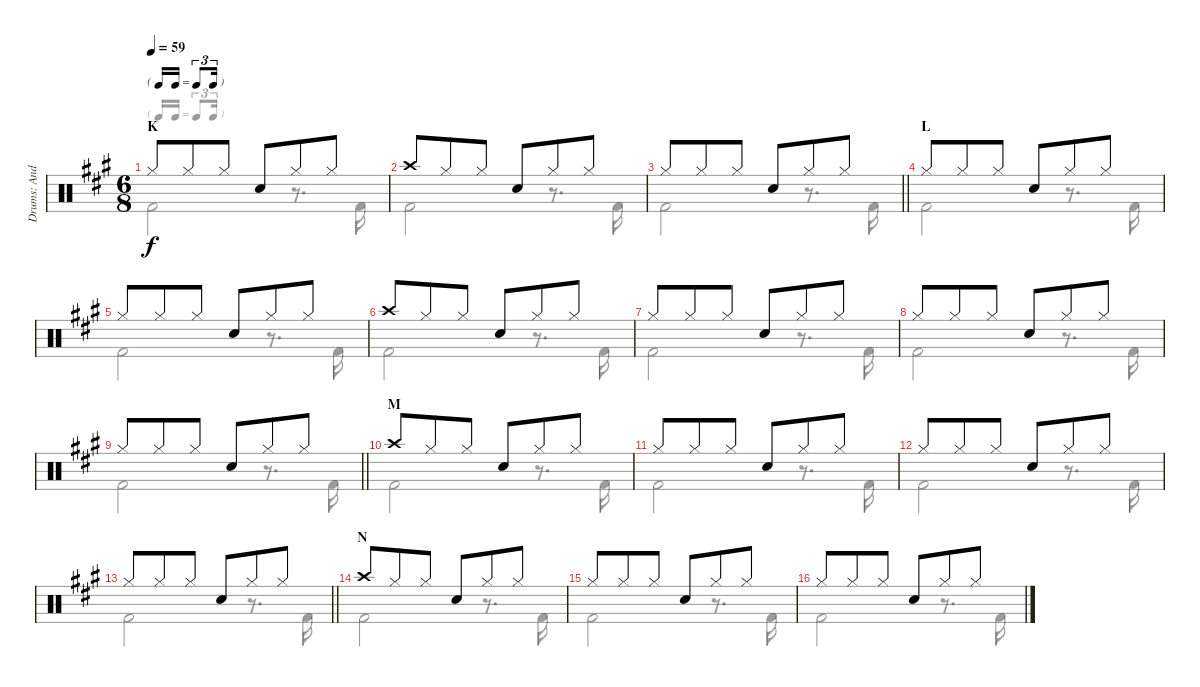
\track ("Drums: Andy Newmark" "Drums: And") {instrument percussion}
\staff {score}
\articulation defaults
\voice
\ts (6 8)
\tf triplet16th
\section ("" "K")
\tempo 59
\clef neutral
\ks a "Hi-Hat (closed)".8{dy f} "Hi-Hat (closed)".8 "Hi-Hat (closed)".8 "Snare (hit) 2".8 "Hi-Hat (closed)".8 "Hi-Hat (closed)".8
|
"Crash high (hit)".8 "Hi-Hat (closed)".8 "Hi-Hat (closed)".8 "Snare (hit) 2".8 "Hi-Hat (closed)".8 "Hi-Hat (closed)".8 |
\barLineRight lightlight "Hi-Hat (closed)".8 "Hi-Hat (closed)".8 "Hi-Hat (closed)".8 "Snare (hit) 2".8 "Hi-Hat (closed)".8 "Hi-Hat (closed)".8
|
\section ("" "L")
"Hi-Hat (closed)".8 "Hi-Hat (closed)".8 "Hi-Hat (closed)".8 "Snare (hit) 2".8 "Hi-Hat (closed)".8 "Hi-Hat (closed)".8 |
"Hi-Hat (closed)".8 "Hi-Hat (closed)".8 "Hi-Hat (closed)".8 "Snare (hit) 2".8 "Hi-Hat (closed)".8 "Hi-Hat (closed)".8 |
"Crash high (hit)".8 "Hi-Hat (closed)".8 "Hi-Hat (closed)".8 "Snare (hit) 2".8 "Hi-Hat (closed)".8 "Hi-Hat (closed)".8 |
"Hi-Hat (closed)".8 "Hi-Hat (closed)".8 "Hi-Hat (closed)".8 "Snare (hit) 2".8 "Hi-Hat (closed)".8 "Hi-Hat (closed)".8 |
"Hi-Hat (closed)".8 "Hi-Hat (closed)".8 "Hi-Hat (closed)".8 "Snare (hit) 2".8 "Hi-Hat (closed)".8 "Hi-Hat (closed)".8 |
\barLineRight lightlight "Hi-Hat (closed)".8 "Hi-Hat (closed)".8 "Hi-Hat (closed)".8 "Snare (hit) 2".8 "Hi-Hat (closed)".8 "Hi-Hat (closed)".8
|
\section ("" "M")
"Crash high (hit)".8 "Hi-Hat (closed)".8 "Hi-Hat (closed)".8 "Snare (hit) 2".8 "Hi-Hat (closed)".8 "Hi-Hat (closed)".8 |
"Hi-Hat (closed)".8 "Hi-Hat (closed)".8 "Hi-Hat (closed)".8 "Snare (hit) 2".8 "Hi-Hat (closed)".8 "Hi-Hat (closed)".8 |
"Hi-Hat (closed)".8 "Hi-Hat (closed)".8 "Hi-Hat (closed)".8 "Snare (hit) 2".8 "Hi-Hat (closed)".8 "Hi-Hat (closed)".8 |
\barLineRight lightlight "Hi-Hat (closed)".8 "Hi-Hat (closed)".8 "Hi-Hat (closed)".8 "Snare (hit) 2".8 "Hi-Hat (closed)".8 "Hi-Hat (closed)".8
|
\section ("" "N")
"Crash high (hit)".8 "Hi-Hat (closed)".8 "Hi-Hat (closed)".8 "Snare (hit) 2".8 "Hi-Hat (closed)".8 "Hi-Hat (closed)".8 |
"Hi-Hat (closed)".8 "Hi-Hat (closed)".8 "Hi-Hat (closed)".8 "Snare (hit) 2".8 "Hi-Hat (closed)".8 "Hi-Hat (closed)".8 |
"Hi-Hat (closed)".8 "Hi-Hat (closed)".8 "Hi-Hat (closed)".8 "Snare (hit) 2".8 "Hi-Hat (closed)".8 "Hi-Hat (closed)".8
\voice
\clef neutral
\ottava regular
\simile none
\ks a "Kick (hit) 2".2{dy f}
r.8{d} "Kick (hit) 2".16 |
"Kick (hit) 2".2 r.8{d} "Kick (hit) 2".16 |
\barLineRight lightlight "Kick (hit) 2".2
r.8{d} "Kick (hit) 2".16 |
"Kick (hit) 2".2 r.8{d} "Kick (hit) 2".16 |
"Kick (hit) 2".2 r.8{d} "Kick (hit) 2".16 |
"Kick (hit) 2".2 r.8{d} "Kick (hit) 2".16 |
"Kick (hit) 2".2 r.8{d} "Kick (hit) 2".16 |
"Kick (hit) 2".2 r.8{d} "Kick (hit) 2".16 |
\barLineRight lightlight "Kick (hit) 2".2
r.8{d} "Kick (hit) 2".16 |
"Kick (hit) 2".2 r.8{d} "Kick (hit) 2".16 |
"Kick (hit) 2".2 r.8{d} "Kick (hit) 2".16 |
"Kick (hit) 2".2 r.8{d} "Kick (hit) 2".16 |
\barLineRight lightlight "Kick (hit) 2".2
r.8{d} "Kick (hit) 2".16 |
"Kick (hit) 2".2 r.8{d} "Kick (hit) 2".16 |
"Kick (hit) 2".2 r.8{d} "Kick (hit) 2".16 |
"Kick (hit) 2".2 r.8{d} "Kick (hit) 2".16
